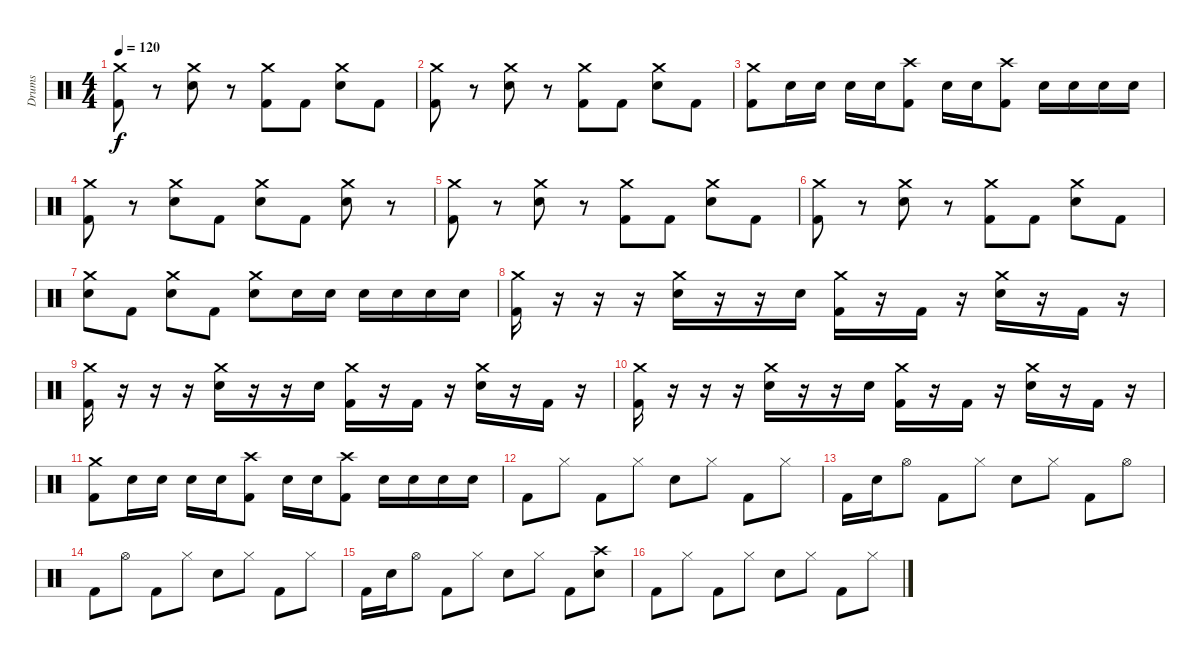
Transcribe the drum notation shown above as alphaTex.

\track ("Drums" "Drums") {instrument percussion}
\staff {score}
\articulation defaults
\ts (4 4)
\tempo 120
\clef neutral
\ks c
("Crash medium (hit)" "Kick (hit) 2").8{dy f} r.8 ("Crash medium (hit)" "Snare (hit) 2").8 r.8 ("Crash medium (hit)" "Kick (hit) 2").8 "Kick (hit) 2".8 ("Crash medium (hit)" "Snare (hit) 2").8 "Kick (hit) 2".8 |
("Crash medium (hit)" "Kick (hit) 2").8 r.8 ("Crash medium (hit)" "Snare (hit) 2").8 r.8 ("Crash medium (hit)" "Kick (hit) 2").8 "Kick (hit) 2".8 ("Crash medium (hit)" "Snare (hit) 2").8 "Kick (hit) 2".8 |
("Crash medium (hit)" "Kick (hit) 2").8 "Snare (hit) 2".16 "Snare (hit) 2".16 "Snare (hit) 2".16 "Snare (hit) 2".16 ("Crash high (hit)" "Kick (hit) 2").8 "Snare (hit) 2".16 "Snare (hit) 2".16 ("Crash high (hit)" "Kick (hit) 2").8 "Snare (hit) 2".16 "Snare (hit) 2".16 "Snare (hit) 2".16 "Snare (hit) 2".16 |
("Crash medium (hit)" "Kick (hit) 2").8 r.8 ("Crash medium (hit)" "Snare (hit) 2").8 "Kick (hit) 2".8 ("Crash medium (hit)" "Snare (hit) 2").8 "Kick (hit) 2".8 ("Crash medium (hit)" "Snare (hit) 2").8 r.8 |
("Crash medium (hit)" "Kick (hit) 2").8 r.8 ("Crash medium (hit)" "Snare (hit) 2").8 r.8 ("Crash medium (hit)" "Kick (hit) 2").8 "Kick (hit) 2".8 ("Crash medium (hit)" "Snare (hit) 2").8 "Kick (hit) 2".8 |
("Crash medium (hit)" "Kick (hit) 2").8 r.8 ("Crash medium (hit)" "Snare (hit) 2").8 r.8 ("Crash medium (hit)" "Kick (hit) 2").8 "Kick (hit) 2".8 ("Crash medium (hit)" "Snare (hit) 2").8 "Kick (hit) 2".8 |
("Crash medium (hit)" "Snare (hit) 2").8 "Kick (hit) 2".8 ("Crash medium (hit)" "Snare (hit) 2").8 "Kick (hit) 2".8 ("Crash medium (hit)" "Snare (hit) 2").8 "Snare (hit) 2".16 "Snare (hit) 2".16 "Snare (hit) 2".16 "Snare (hit) 2".16 "Snare (hit) 2".16 "Snare (hit) 2".16 |
("Crash medium (hit)" "Kick (hit) 2").16 r.16 r.16 r.16 ("Crash medium (hit)" "Snare (hit) 2").16 r.16 r.16 "Snare (hit) 2".16 ("Crash medium (hit)" "Kick (hit) 2").16 r.16 "Kick (hit) 2".16 r.16 ("Crash medium (hit)" "Snare (hit) 2").16 r.16 "Kick (hit) 2".16 r.16 |
("Crash medium (hit)" "Kick (hit) 2").16 r.16 r.16 r.16 ("Crash medium (hit)" "Snare (hit) 2").16 r.16 r.16 "Snare (hit) 2".16 ("Crash medium (hit)" "Kick (hit) 2").16 r.16 "Kick (hit) 2".16 r.16 ("Crash medium (hit)" "Snare (hit) 2").16 r.16 "Kick (hit) 2".16 r.16 |
("Crash medium (hit)" "Kick (hit) 2").16 r.16 r.16 r.16 ("Crash medium (hit)" "Snare (hit) 2").16 r.16 r.16 "Snare (hit) 2".16 ("Crash medium (hit)" "Kick (hit) 2").16 r.16 "Kick (hit) 2".16 r.16 ("Crash medium (hit)" "Snare (hit) 2").16 r.16 "Kick (hit) 2".16 r.16 |
("Crash medium (hit)" "Kick (hit) 2").8 "Snare (hit) 2".16 "Snare (hit) 2".16 "Snare (hit) 2".16 "Snare (hit) 2".16 ("Crash high (hit)" "Kick (hit) 2").8 "Snare (hit) 2".16 "Snare (hit) 2".16 ("Crash high (hit)" "Kick (hit) 2").8 "Snare (hit) 2".16 "Snare (hit) 2".16 "Snare (hit) 2".16 "Snare (hit) 2".16 |
"Kick (hit) 2".8 "Hi-Hat (closed)".8 "Kick (hit) 2".8 "Hi-Hat (closed)".8 "Snare (hit) 2".8 "Hi-Hat (closed)".8 "Kick (hit) 2".8 "Hi-Hat (closed)".8 |
"Kick (hit) 2".16 "Snare (hit) 2".16 "Hi-Hat (open)".8 "Kick (hit) 2".8 "Hi-Hat (closed)".8 "Snare (hit) 2".8 "Hi-Hat (closed)".8 "Kick (hit) 2".8 "Hi-Hat (open)".8 |
"Kick (hit) 2".8 "Hi-Hat (open)".8 "Kick (hit) 2".8 "Hi-Hat (closed)".8 "Snare (hit) 2".8 "Hi-Hat (closed)".8 "Kick (hit) 2".8 "Hi-Hat (closed)".8 |
"Kick (hit) 2".16 "Snare (hit) 2".16 "Hi-Hat (open)".8 "Kick (hit) 2".8 "Hi-Hat (closed)".8 "Snare (hit) 2".8 "Hi-Hat (closed)".8 "Kick (hit) 2".8 ("Crash high (hit)" "Snare (hit) 2").8 |
"Kick (hit) 2".8 "Hi-Hat (closed)".8 "Kick (hit) 2".8 "Hi-Hat (closed)".8 "Snare (hit) 2".8 "Hi-Hat (closed)".8 "Kick (hit) 2".8 "Hi-Hat (closed)".8
